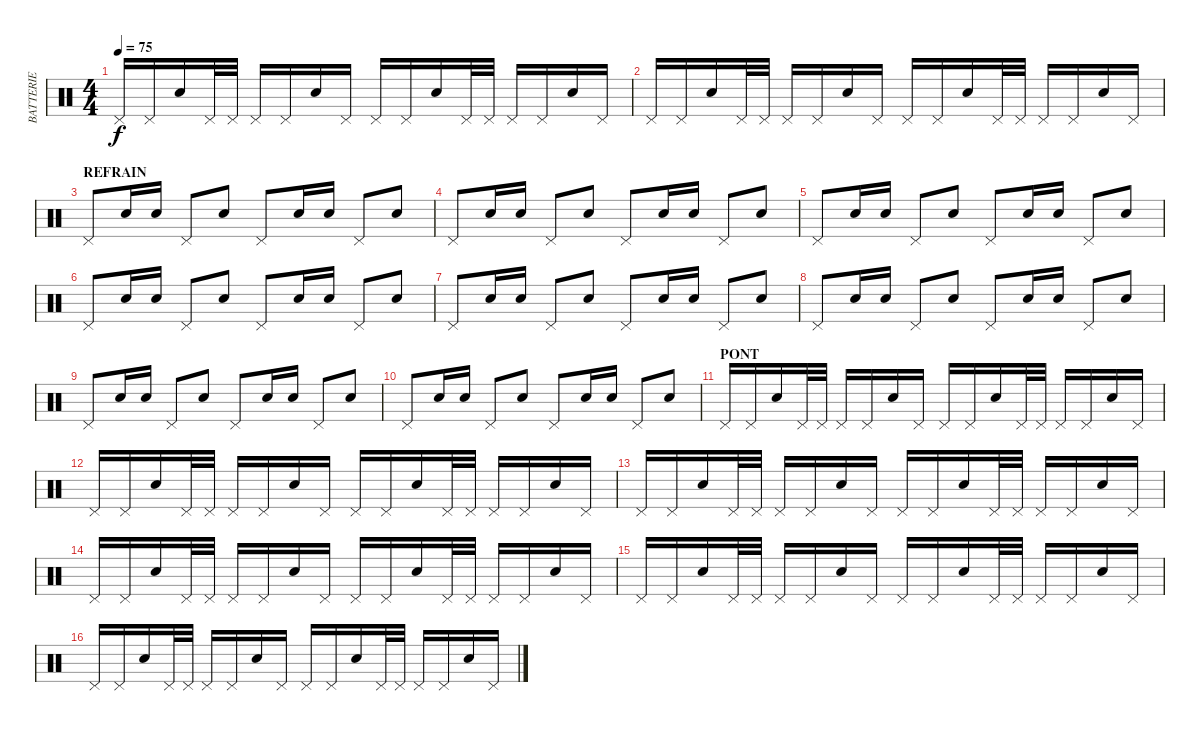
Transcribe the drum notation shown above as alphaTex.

\track ("BATTERIE" "BATTERIE") {instrument percussion}
\staff {score}
\articulation defaults
\ts (4 4)
\tempo 75
\clef neutral
\ks c "Pedal Hi-Hat (hit)".16{dy f} "Pedal Hi-Hat (hit)".16 "Electric Snare (hit)".16 "Pedal Hi-Hat (hit)".32 "Pedal Hi-Hat (hit)".32 "Pedal Hi-Hat (hit)".16 "Pedal Hi-Hat (hit)".16 "Electric Snare (hit)".16 "Pedal Hi-Hat (hit)".16 "Pedal Hi-Hat (hit)".16 "Pedal Hi-Hat (hit)".16 "Electric Snare (hit)".16 "Pedal Hi-Hat (hit)".32 "Pedal Hi-Hat (hit)".32 "Pedal Hi-Hat (hit)".16 "Pedal Hi-Hat (hit)".16 "Electric Snare (hit)".16 "Pedal Hi-Hat (hit)".16
|
"Pedal Hi-Hat (hit)".16 "Pedal Hi-Hat (hit)".16 "Electric Snare (hit)".16 "Pedal Hi-Hat (hit)".32 "Pedal Hi-Hat (hit)".32 "Pedal Hi-Hat (hit)".16 "Pedal Hi-Hat (hit)".16 "Electric Snare (hit)".16 "Pedal Hi-Hat (hit)".16 "Pedal Hi-Hat (hit)".16 "Pedal Hi-Hat (hit)".16 "Electric Snare (hit)".16 "Pedal Hi-Hat (hit)".32 "Pedal Hi-Hat (hit)".32 "Pedal Hi-Hat (hit)".16 "Pedal Hi-Hat (hit)".16 "Electric Snare (hit)".16 "Pedal Hi-Hat (hit)".16 |
\section ("" "REFRAIN")
"Pedal Hi-Hat (hit)".8 "Electric Snare (hit)".16 "Electric Snare (hit)".16 "Pedal Hi-Hat (hit)".8 "Electric Snare (hit)".8 "Pedal Hi-Hat (hit)".8 "Electric Snare (hit)".16 "Electric Snare (hit)".16 "Pedal Hi-Hat (hit)".8 "Electric Snare (hit)".8 |
"Pedal Hi-Hat (hit)".8 "Electric Snare (hit)".16 "Electric Snare (hit)".16 "Pedal Hi-Hat (hit)".8 "Electric Snare (hit)".8 "Pedal Hi-Hat (hit)".8 "Electric Snare (hit)".16 "Electric Snare (hit)".16 "Pedal Hi-Hat (hit)".8 "Electric Snare (hit)".8 |
"Pedal Hi-Hat (hit)".8 "Electric Snare (hit)".16 "Electric Snare (hit)".16 "Pedal Hi-Hat (hit)".8 "Electric Snare (hit)".8 "Pedal Hi-Hat (hit)".8 "Electric Snare (hit)".16 "Electric Snare (hit)".16 "Pedal Hi-Hat (hit)".8 "Electric Snare (hit)".8 |
"Pedal Hi-Hat (hit)".8 "Electric Snare (hit)".16 "Electric Snare (hit)".16 "Pedal Hi-Hat (hit)".8 "Electric Snare (hit)".8 "Pedal Hi-Hat (hit)".8 "Electric Snare (hit)".16 "Electric Snare (hit)".16 "Pedal Hi-Hat (hit)".8 "Electric Snare (hit)".8 |
"Pedal Hi-Hat (hit)".8 "Electric Snare (hit)".16 "Electric Snare (hit)".16 "Pedal Hi-Hat (hit)".8 "Electric Snare (hit)".8 "Pedal Hi-Hat (hit)".8 "Electric Snare (hit)".16 "Electric Snare (hit)".16 "Pedal Hi-Hat (hit)".8 "Electric Snare (hit)".8 |
"Pedal Hi-Hat (hit)".8 "Electric Snare (hit)".16 "Electric Snare (hit)".16 "Pedal Hi-Hat (hit)".8 "Electric Snare (hit)".8 "Pedal Hi-Hat (hit)".8 "Electric Snare (hit)".16 "Electric Snare (hit)".16 "Pedal Hi-Hat (hit)".8 "Electric Snare (hit)".8 |
"Pedal Hi-Hat (hit)".8 "Electric Snare (hit)".16 "Electric Snare (hit)".16 "Pedal Hi-Hat (hit)".8 "Electric Snare (hit)".8 "Pedal Hi-Hat (hit)".8 "Electric Snare (hit)".16 "Electric Snare (hit)".16 "Pedal Hi-Hat (hit)".8 "Electric Snare (hit)".8 |
"Pedal Hi-Hat (hit)".8 "Electric Snare (hit)".16 "Electric Snare (hit)".16 "Pedal Hi-Hat (hit)".8 "Electric Snare (hit)".8 "Pedal Hi-Hat (hit)".8 "Electric Snare (hit)".16 "Electric Snare (hit)".16 "Pedal Hi-Hat (hit)".8 "Electric Snare (hit)".8 |
\section ("" "PONT")
"Pedal Hi-Hat (hit)".16 "Pedal Hi-Hat (hit)".16 "Electric Snare (hit)".16 "Pedal Hi-Hat (hit)".32 "Pedal Hi-Hat (hit)".32 "Pedal Hi-Hat (hit)".16 "Pedal Hi-Hat (hit)".16 "Electric Snare (hit)".16 "Pedal Hi-Hat (hit)".16 "Pedal Hi-Hat (hit)".16 "Pedal Hi-Hat (hit)".16 "Electric Snare (hit)".16 "Pedal Hi-Hat (hit)".32 "Pedal Hi-Hat (hit)".32 "Pedal Hi-Hat (hit)".16 "Pedal Hi-Hat (hit)".16 "Electric Snare (hit)".16 "Pedal Hi-Hat (hit)".16 |
"Pedal Hi-Hat (hit)".16 "Pedal Hi-Hat (hit)".16 "Electric Snare (hit)".16 "Pedal Hi-Hat (hit)".32 "Pedal Hi-Hat (hit)".32 "Pedal Hi-Hat (hit)".16 "Pedal Hi-Hat (hit)".16 "Electric Snare (hit)".16 "Pedal Hi-Hat (hit)".16 "Pedal Hi-Hat (hit)".16 "Pedal Hi-Hat (hit)".16 "Electric Snare (hit)".16 "Pedal Hi-Hat (hit)".32 "Pedal Hi-Hat (hit)".32 "Pedal Hi-Hat (hit)".16 "Pedal Hi-Hat (hit)".16 "Electric Snare (hit)".16 "Pedal Hi-Hat (hit)".16 |
"Pedal Hi-Hat (hit)".16 "Pedal Hi-Hat (hit)".16 "Electric Snare (hit)".16 "Pedal Hi-Hat (hit)".32 "Pedal Hi-Hat (hit)".32 "Pedal Hi-Hat (hit)".16 "Pedal Hi-Hat (hit)".16 "Electric Snare (hit)".16 "Pedal Hi-Hat (hit)".16 "Pedal Hi-Hat (hit)".16 "Pedal Hi-Hat (hit)".16 "Electric Snare (hit)".16 "Pedal Hi-Hat (hit)".32 "Pedal Hi-Hat (hit)".32 "Pedal Hi-Hat (hit)".16 "Pedal Hi-Hat (hit)".16 "Electric Snare (hit)".16 "Pedal Hi-Hat (hit)".16 |
"Pedal Hi-Hat (hit)".16 "Pedal Hi-Hat (hit)".16 "Electric Snare (hit)".16 "Pedal Hi-Hat (hit)".32 "Pedal Hi-Hat (hit)".32 "Pedal Hi-Hat (hit)".16 "Pedal Hi-Hat (hit)".16 "Electric Snare (hit)".16 "Pedal Hi-Hat (hit)".16 "Pedal Hi-Hat (hit)".16 "Pedal Hi-Hat (hit)".16 "Electric Snare (hit)".16 "Pedal Hi-Hat (hit)".32 "Pedal Hi-Hat (hit)".32 "Pedal Hi-Hat (hit)".16 "Pedal Hi-Hat (hit)".16 "Electric Snare (hit)".16 "Pedal Hi-Hat (hit)".16 |
"Pedal Hi-Hat (hit)".16 "Pedal Hi-Hat (hit)".16 "Electric Snare (hit)".16 "Pedal Hi-Hat (hit)".32 "Pedal Hi-Hat (hit)".32 "Pedal Hi-Hat (hit)".16 "Pedal Hi-Hat (hit)".16 "Electric Snare (hit)".16 "Pedal Hi-Hat (hit)".16 "Pedal Hi-Hat (hit)".16 "Pedal Hi-Hat (hit)".16 "Electric Snare (hit)".16 "Pedal Hi-Hat (hit)".32 "Pedal Hi-Hat (hit)".32 "Pedal Hi-Hat (hit)".16 "Pedal Hi-Hat (hit)".16 "Electric Snare (hit)".16 "Pedal Hi-Hat (hit)".16 |
"Pedal Hi-Hat (hit)".16 "Pedal Hi-Hat (hit)".16 "Electric Snare (hit)".16 "Pedal Hi-Hat (hit)".32 "Pedal Hi-Hat (hit)".32 "Pedal Hi-Hat (hit)".16 "Pedal Hi-Hat (hit)".16 "Electric Snare (hit)".16 "Pedal Hi-Hat (hit)".16 "Pedal Hi-Hat (hit)".16 "Pedal Hi-Hat (hit)".16 "Electric Snare (hit)".16 "Pedal Hi-Hat (hit)".32 "Pedal Hi-Hat (hit)".32 "Pedal Hi-Hat (hit)".16 "Pedal Hi-Hat (hit)".16 "Electric Snare (hit)".16 "Pedal Hi-Hat (hit)".16
